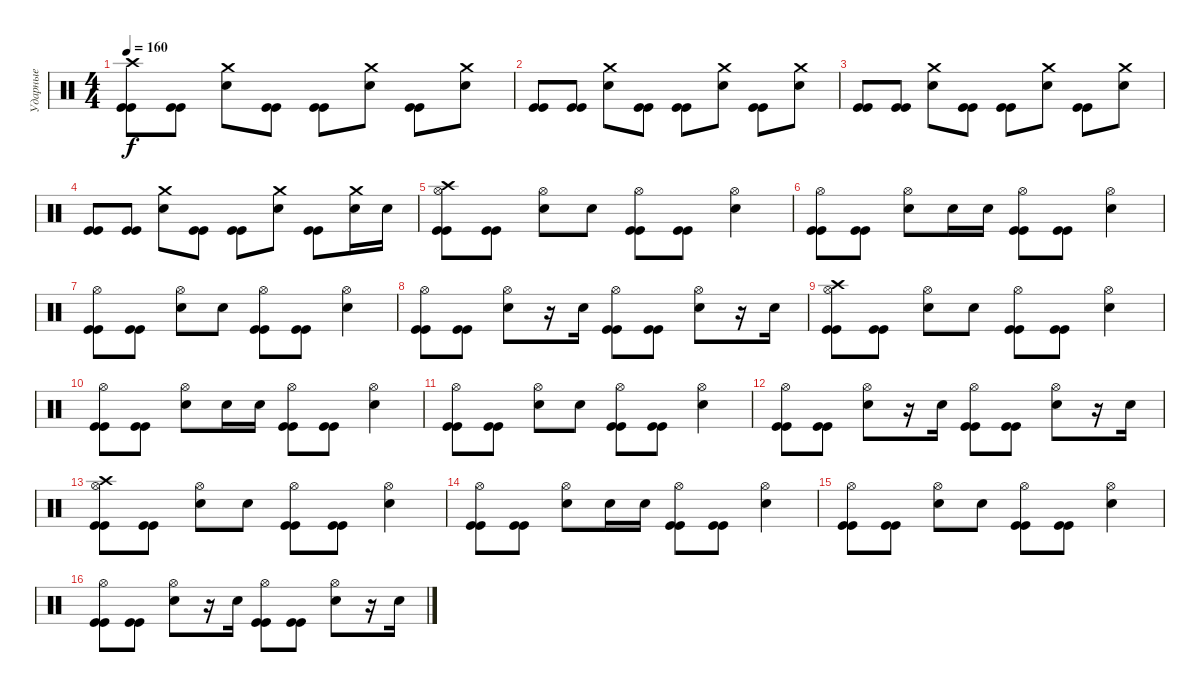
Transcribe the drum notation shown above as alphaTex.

\track ("Ударные" "Ударные") {instrument percussion}
\staff {score}
\articulation defaults
\ts (4 4)
\tempo 160
\clef neutral
\ks c
("Crash high (hit)" "Kick (hit)" "Kick (hit)").8{dy f} ("Kick (hit)" "Kick (hit)").8 ("Crash medium (hit)" "Electric Snare (hit)").8 ("Kick (hit)" "Kick (hit)").8 ("Kick (hit)" "Kick (hit)").8 ("Crash medium (hit)" "Electric Snare (hit)").8 ("Kick (hit)" "Kick (hit)").8 ("Crash medium (hit)" "Electric Snare (hit)").8 |
("Kick (hit)" "Kick (hit)").8 ("Kick (hit)" "Kick (hit)").8 ("Crash medium (hit)" "Electric Snare (hit)").8 ("Kick (hit)" "Kick (hit)").8 ("Kick (hit)" "Kick (hit)").8 ("Crash medium (hit)" "Electric Snare (hit)").8 ("Kick (hit)" "Kick (hit)").8 ("Crash medium (hit)" "Electric Snare (hit)").8 |
("Kick (hit)" "Kick (hit)").8 ("Kick (hit)" "Kick (hit)").8 ("Crash medium (hit)" "Electric Snare (hit)").8 ("Kick (hit)" "Kick (hit)").8 ("Kick (hit)" "Kick (hit)").8 ("Crash medium (hit)" "Electric Snare (hit)").8 ("Kick (hit)" "Kick (hit)").8 ("Crash medium (hit)" "Electric Snare (hit)").8 |
("Kick (hit)" "Kick (hit)").8 ("Kick (hit)" "Kick (hit)").8 ("Crash medium (hit)" "Electric Snare (hit)").8 ("Kick (hit)" "Kick (hit)").8 ("Kick (hit)" "Kick (hit)").8 ("Crash medium (hit)" "Electric Snare (hit)").8 ("Kick (hit)" "Kick (hit)").8 ("Crash medium (hit)" "Electric Snare (hit)").16 "Electric Snare (hit)".16 |
("Crash high (hit)" "Hi-Hat (open)" "Kick (hit)" "Kick (hit)").8 ("Kick (hit)" "Kick (hit)").8 ("Hi-Hat (open)" "Electric Snare (hit)").8 "Electric Snare (hit)".8 ("Hi-Hat (open)" "Kick (hit)" "Kick (hit)").8 ("Kick (hit)" "Kick (hit)").8 ("Hi-Hat (open)" "Electric Snare (hit)").4 |
("Hi-Hat (open)" "Kick (hit)" "Kick (hit)").8 ("Kick (hit)" "Kick (hit)").8 ("Hi-Hat (open)" "Electric Snare (hit)").8 "Electric Snare (hit)".16 "Electric Snare (hit)".16 ("Hi-Hat (open)" "Kick (hit)" "Kick (hit)").8 ("Kick (hit)" "Kick (hit)").8 ("Hi-Hat (open)" "Electric Snare (hit)").4 |
("Hi-Hat (open)" "Kick (hit)" "Kick (hit)").8 ("Kick (hit)" "Kick (hit)").8 ("Hi-Hat (open)" "Electric Snare (hit)").8 "Electric Snare (hit)".8 ("Hi-Hat (open)" "Kick (hit)" "Kick (hit)").8 ("Kick (hit)" "Kick (hit)").8 ("Hi-Hat (open)" "Electric Snare (hit)").4 |
("Hi-Hat (open)" "Kick (hit)" "Kick (hit)").8 ("Kick (hit)" "Kick (hit)").8 ("Hi-Hat (open)" "Electric Snare (hit)").8 r.16 "Electric Snare (hit)".16 ("Hi-Hat (open)" "Kick (hit)" "Kick (hit)").8 ("Kick (hit)" "Kick (hit)").8 ("Hi-Hat (open)" "Electric Snare (hit)").8 r.16 "Electric Snare (hit)".16 |
("Crash high (hit)" "Hi-Hat (open)" "Kick (hit)" "Kick (hit)").8 ("Kick (hit)" "Kick (hit)").8 ("Hi-Hat (open)" "Electric Snare (hit)").8 "Electric Snare (hit)".8 ("Hi-Hat (open)" "Kick (hit)" "Kick (hit)").8 ("Kick (hit)" "Kick (hit)").8 ("Hi-Hat (open)" "Electric Snare (hit)").4 |
("Hi-Hat (open)" "Kick (hit)" "Kick (hit)").8 ("Kick (hit)" "Kick (hit)").8 ("Hi-Hat (open)" "Electric Snare (hit)").8 "Electric Snare (hit)".16 "Electric Snare (hit)".16 ("Hi-Hat (open)" "Kick (hit)" "Kick (hit)").8 ("Kick (hit)" "Kick (hit)").8 ("Hi-Hat (open)" "Electric Snare (hit)").4 |
("Hi-Hat (open)" "Kick (hit)" "Kick (hit)").8 ("Kick (hit)" "Kick (hit)").8 ("Hi-Hat (open)" "Electric Snare (hit)").8 "Electric Snare (hit)".8 ("Hi-Hat (open)" "Kick (hit)" "Kick (hit)").8 ("Kick (hit)" "Kick (hit)").8 ("Hi-Hat (open)" "Electric Snare (hit)").4 |
("Hi-Hat (open)" "Kick (hit)" "Kick (hit)").8 ("Kick (hit)" "Kick (hit)").8 ("Hi-Hat (open)" "Electric Snare (hit)").8 r.16 "Electric Snare (hit)".16 ("Hi-Hat (open)" "Kick (hit)" "Kick (hit)").8 ("Kick (hit)" "Kick (hit)").8 ("Hi-Hat (open)" "Electric Snare (hit)").8 r.16 "Electric Snare (hit)".16 |
("Crash high (hit)" "Hi-Hat (open)" "Kick (hit)" "Kick (hit)").8 ("Kick (hit)" "Kick (hit)").8 ("Hi-Hat (open)" "Electric Snare (hit)").8 "Electric Snare (hit)".8 ("Hi-Hat (open)" "Kick (hit)" "Kick (hit)").8 ("Kick (hit)" "Kick (hit)").8 ("Hi-Hat (open)" "Electric Snare (hit)").4 |
("Hi-Hat (open)" "Kick (hit)" "Kick (hit)").8 ("Kick (hit)" "Kick (hit)").8 ("Hi-Hat (open)" "Electric Snare (hit)").8 "Electric Snare (hit)".16 "Electric Snare (hit)".16 ("Hi-Hat (open)" "Kick (hit)" "Kick (hit)").8 ("Kick (hit)" "Kick (hit)").8 ("Hi-Hat (open)" "Electric Snare (hit)").4 |
("Hi-Hat (open)" "Kick (hit)" "Kick (hit)").8 ("Kick (hit)" "Kick (hit)").8 ("Hi-Hat (open)" "Electric Snare (hit)").8 "Electric Snare (hit)".8 ("Hi-Hat (open)" "Kick (hit)" "Kick (hit)").8 ("Kick (hit)" "Kick (hit)").8 ("Hi-Hat (open)" "Electric Snare (hit)").4 |
("Hi-Hat (open)" "Kick (hit)" "Kick (hit)").8 ("Kick (hit)" "Kick (hit)").8 ("Hi-Hat (open)" "Electric Snare (hit)").8 r.16 "Electric Snare (hit)".16 ("Hi-Hat (open)" "Kick (hit)" "Kick (hit)").8 ("Kick (hit)" "Kick (hit)").8 ("Hi-Hat (open)" "Electric Snare (hit)").8 r.16 "Electric Snare (hit)".16
